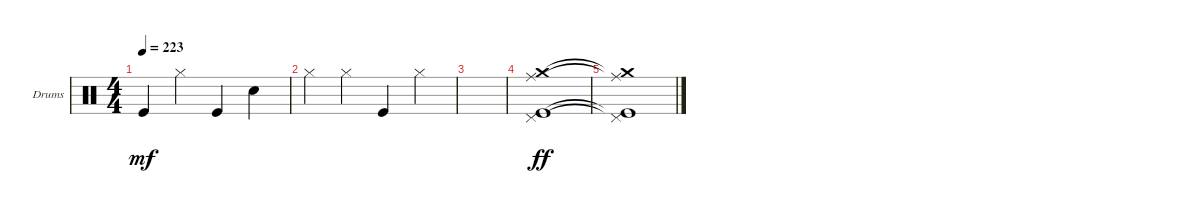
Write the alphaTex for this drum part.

\defaultSystemsLayout 4
\bracketExtendMode groupsimilarinstruments
\firstSystemTrackNameOrientation horizontal
\otherSystemsTrackNameOrientation horizontal
\track ("Drumkit" "Drums") {instrument percussion}
\staff {score}
\articulation defaults
\ts (4 4)
\tempo 223
\clef neutral
\ks c "Kick (hit)".4{dy mf} "Hi-Hat (closed)".4 "Kick (hit)".4 "Snare (hit) 2".4
|
"Hi-Hat (closed)".4 "Hi-Hat (closed)".4 "Kick (hit)".4 "Hi-Hat (closed)".4 |
|
("Kick (hit)" "Ride (middle)" "Pedal Hi-Hat (hit)" "Crash medium (hit)").1{dy ff} |
("Kick (hit)"{t} "Ride (middle)"{t} "Pedal Hi-Hat (hit)"{t} "Crash medium (hit)"{t}).1
